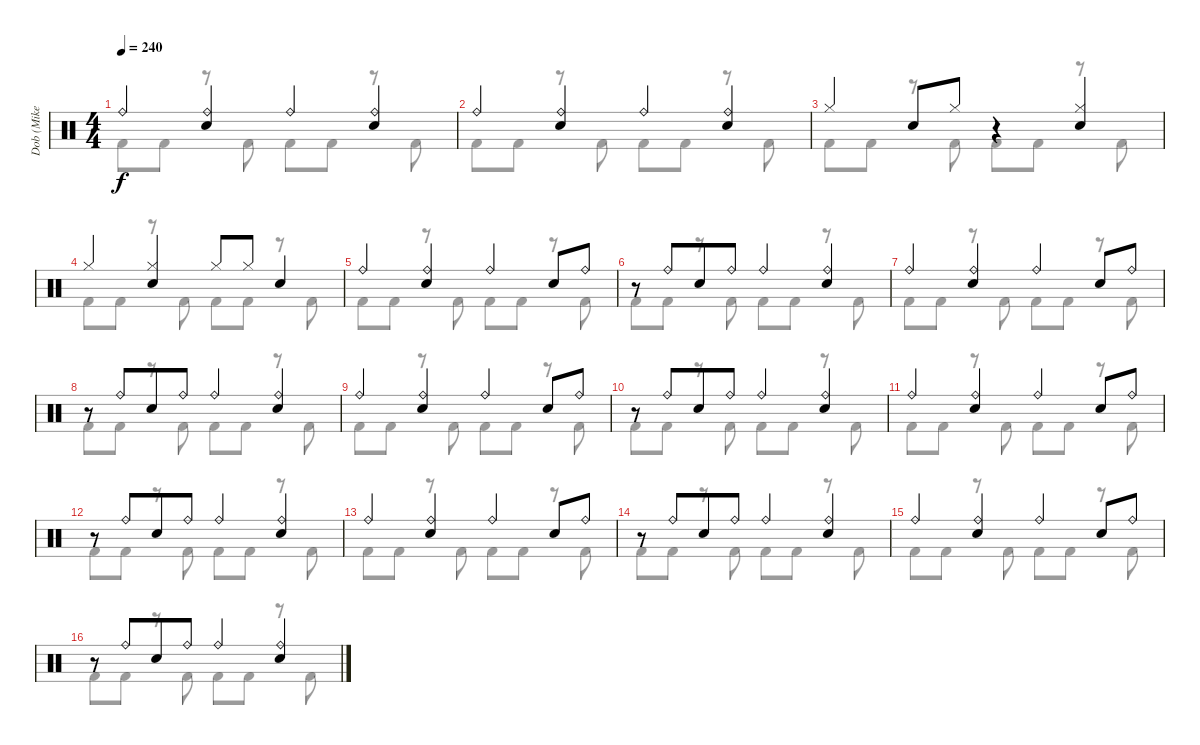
\track ("Dob (Mike Terrana)" "Dob (Mike ") {instrument percussion}
\staff {score}
\articulation defaults
\voice
\ts (4 4)
\tempo 240
\clef neutral
\ks c "Ride (bell)".4{dy f}
("Ride (bell)" "Electric Snare (hit)").4 "Ride (bell)".4 ("Ride (bell)" "Electric Snare (hit)").4 |
"Ride (bell)".4 ("Ride (bell)" "Electric Snare (hit)").4 "Ride (bell)".4 ("Ride (bell)" "Electric Snare (hit)").4 |
"Hi-Hat (closed)".4 "Electric Snare (hit)".8 "Hi-Hat (closed)".8 r.4 ("Hi-Hat (closed)" "Electric Snare (hit)").4 |
"Hi-Hat (closed)".4 ("Hi-Hat (closed)" "Electric Snare (hit)").4 "Hi-Hat (closed)".8 "Hi-Hat (closed)".8 "Electric Snare (hit)".4 |
"Ride (bell)".4 ("Ride (bell)" "Electric Snare (hit)").4 "Ride (bell)".4 "Electric Snare (hit)".8 "Ride (bell)".8 |
r.8 "Ride (bell)".8{beam merge} "Electric Snare (hit)".8 "Ride (bell)".8 "Ride (bell)".4 ("Ride (bell)" "Electric Snare (hit)").4 |
"Ride (bell)".4 ("Ride (bell)" "Electric Snare (hit)").4 "Ride (bell)".4 "Electric Snare (hit)".8 "Ride (bell)".8 |
r.8 "Ride (bell)".8{beam merge} "Electric Snare (hit)".8 "Ride (bell)".8 "Ride (bell)".4 ("Ride (bell)" "Electric Snare (hit)").4 |
"Ride (bell)".4 ("Ride (bell)" "Electric Snare (hit)").4 "Ride (bell)".4 "Electric Snare (hit)".8 "Ride (bell)".8 |
r.8 "Ride (bell)".8{beam merge} "Electric Snare (hit)".8 "Ride (bell)".8 "Ride (bell)".4 ("Ride (bell)" "Electric Snare (hit)").4 |
"Ride (bell)".4 ("Ride (bell)" "Electric Snare (hit)").4 "Ride (bell)".4 "Electric Snare (hit)".8 "Ride (bell)".8 |
r.8 "Ride (bell)".8{beam merge} "Electric Snare (hit)".8 "Ride (bell)".8 "Ride (bell)".4 ("Ride (bell)" "Electric Snare (hit)").4 |
"Ride (bell)".4 ("Ride (bell)" "Electric Snare (hit)").4 "Ride (bell)".4 "Electric Snare (hit)".8 "Ride (bell)".8 |
r.8 "Ride (bell)".8{beam merge} "Electric Snare (hit)".8 "Ride (bell)".8 "Ride (bell)".4 ("Ride (bell)" "Electric Snare (hit)").4 |
"Ride (bell)".4 ("Ride (bell)" "Electric Snare (hit)").4 "Ride (bell)".4 "Electric Snare (hit)".8 "Ride (bell)".8 |
r.8 "Ride (bell)".8{beam merge} "Electric Snare (hit)".8 "Ride (bell)".8 "Ride (bell)".4 ("Ride (bell)" "Electric Snare (hit)").4
\voice
\clef neutral
\ottava regular
\simile none
\ks c "Kick (hit) 2".8{dy f} "Kick (hit) 2".8
r.8 "Kick (hit) 2".8 "Kick (hit) 2".8 "Kick (hit) 2".8 r.8 "Kick (hit) 2".8 |
"Kick (hit) 2".8 "Kick (hit) 2".8 r.8 "Kick (hit) 2".8 "Kick (hit) 2".8 "Kick (hit) 2".8 r.8 "Kick (hit) 2".8 |
"Kick (hit) 2".8 "Kick (hit) 2".8 r.8 "Kick (hit) 2".8 "Kick (hit) 2".8 "Kick (hit) 2".8 r.8 "Kick (hit) 2".8 |
"Kick (hit) 2".8 "Kick (hit) 2".8 r.8 "Kick (hit) 2".8 "Kick (hit) 2".8 "Kick (hit) 2".8 r.8 "Kick (hit) 2".8 |
"Kick (hit) 2".8 "Kick (hit) 2".8 r.8 "Kick (hit) 2".8 "Kick (hit) 2".8 "Kick (hit) 2".8 r.8 "Kick (hit) 2".8 |
"Kick (hit) 2".8 "Kick (hit) 2".8 r.8 "Kick (hit) 2".8 "Kick (hit) 2".8 "Kick (hit) 2".8 r.8 "Kick (hit) 2".8 |
"Kick (hit) 2".8 "Kick (hit) 2".8 r.8 "Kick (hit) 2".8 "Kick (hit) 2".8 "Kick (hit) 2".8 r.8 "Kick (hit) 2".8 |
"Kick (hit) 2".8 "Kick (hit) 2".8 r.8 "Kick (hit) 2".8 "Kick (hit) 2".8 "Kick (hit) 2".8 r.8 "Kick (hit) 2".8 |
"Kick (hit) 2".8 "Kick (hit) 2".8 r.8 "Kick (hit) 2".8 "Kick (hit) 2".8 "Kick (hit) 2".8 r.8 "Kick (hit) 2".8 |
"Kick (hit) 2".8 "Kick (hit) 2".8 r.8 "Kick (hit) 2".8 "Kick (hit) 2".8 "Kick (hit) 2".8 r.8 "Kick (hit) 2".8 |
"Kick (hit) 2".8 "Kick (hit) 2".8 r.8 "Kick (hit) 2".8 "Kick (hit) 2".8 "Kick (hit) 2".8 r.8 "Kick (hit) 2".8 |
"Kick (hit) 2".8 "Kick (hit) 2".8 r.8 "Kick (hit) 2".8 "Kick (hit) 2".8 "Kick (hit) 2".8 r.8 "Kick (hit) 2".8 |
"Kick (hit) 2".8 "Kick (hit) 2".8 r.8 "Kick (hit) 2".8 "Kick (hit) 2".8 "Kick (hit) 2".8 r.8 "Kick (hit) 2".8 |
"Kick (hit) 2".8 "Kick (hit) 2".8 r.8 "Kick (hit) 2".8 "Kick (hit) 2".8 "Kick (hit) 2".8 r.8 "Kick (hit) 2".8 |
"Kick (hit) 2".8 "Kick (hit) 2".8 r.8 "Kick (hit) 2".8 "Kick (hit) 2".8 "Kick (hit) 2".8 r.8 "Kick (hit) 2".8 |
"Kick (hit) 2".8 "Kick (hit) 2".8 r.8 "Kick (hit) 2".8 "Kick (hit) 2".8 "Kick (hit) 2".8 r.8 "Kick (hit) 2".8
